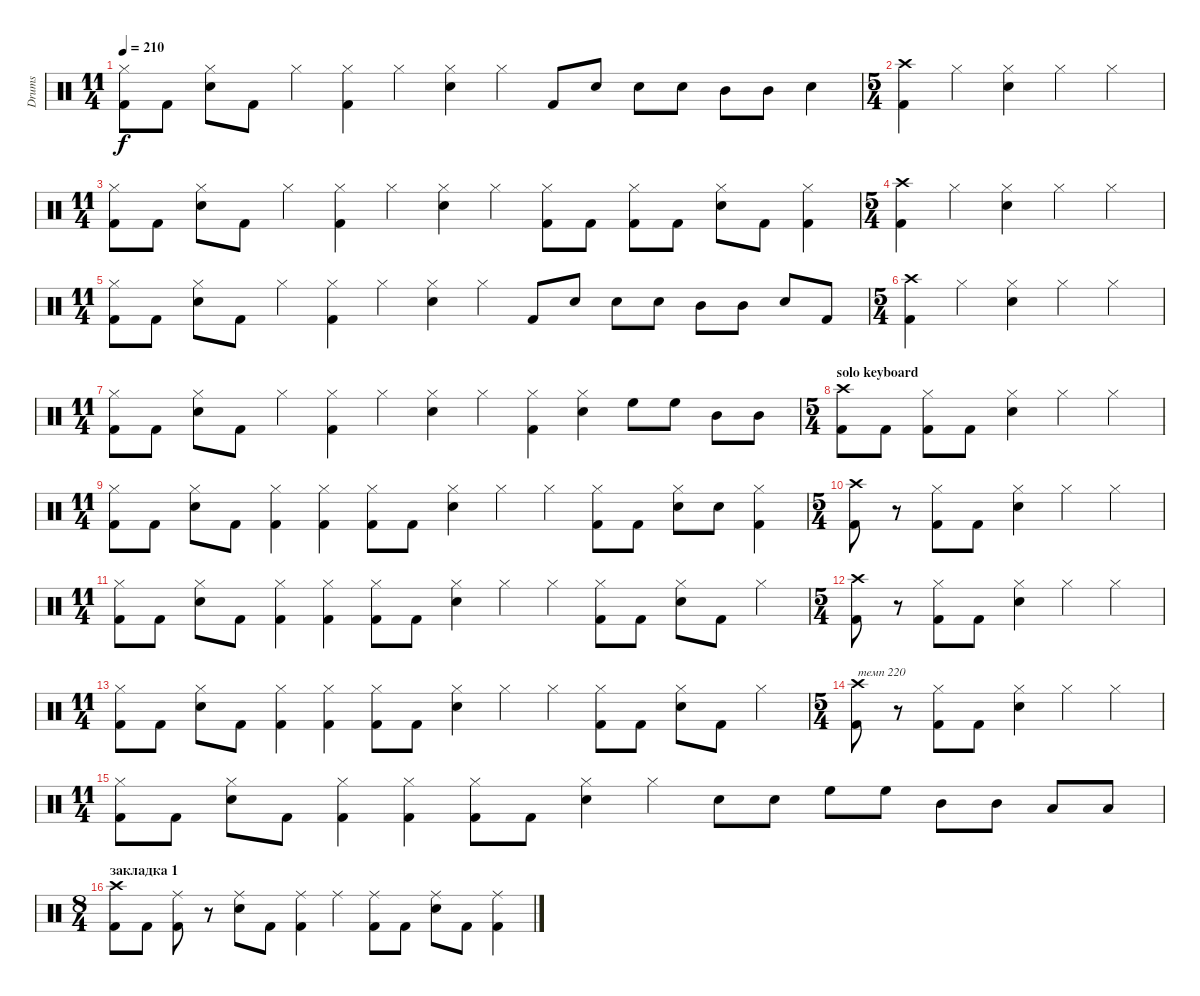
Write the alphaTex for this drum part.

\track ("Drums" "Drums") {instrument percussion}
\staff {score}
\articulation defaults
\ts (11 4)
\tempo 210
\clef neutral
\ks c
("Hi-Hat (closed)" "Kick (hit) 2").8{dy f} "Kick (hit) 2".8 ("Hi-Hat (closed)" "Snare (hit) 2").8 "Kick (hit) 2".8 "Hi-Hat (closed)".4 ("Hi-Hat (closed)" "Kick (hit) 2").4 "Hi-Hat (closed)".4 ("Hi-Hat (closed)" "Snare (hit) 2").4 "Hi-Hat (closed)".4 "Kick (hit) 2".8 "Snare (hit) 2".8 "Snare (hit) 2".8 "Snare (hit) 2".8 "Mid Tom (hit)".8 "Mid Tom (hit)".8 "Snare (hit) 2".4 |
\ts (5 4)
("Crash high (hit)" "Kick (hit) 2").4 "Hi-Hat (closed)".4 ("Hi-Hat (closed)" "Snare (hit) 2").4 "Hi-Hat (closed)".4 "Hi-Hat (closed)".4 |
\ts (11 4)
("Hi-Hat (closed)" "Kick (hit) 2").8 "Kick (hit) 2".8 ("Hi-Hat (closed)" "Snare (hit) 2").8 "Kick (hit) 2".8 "Hi-Hat (closed)".4 ("Hi-Hat (closed)" "Kick (hit) 2").4 "Hi-Hat (closed)".4 ("Hi-Hat (closed)" "Snare (hit) 2").4 "Hi-Hat (closed)".4 ("Hi-Hat (closed)" "Kick (hit) 2").8 "Kick (hit) 2".8 ("Hi-Hat (closed)" "Kick (hit) 2").8 "Kick (hit) 2".8 ("Hi-Hat (closed)" "Snare (hit) 2").8 "Kick (hit) 2".8 ("Hi-Hat (closed)" "Kick (hit) 2").4 |
\ts (5 4)
("Crash high (hit)" "Kick (hit) 2").4 "Hi-Hat (closed)".4 ("Hi-Hat (closed)" "Snare (hit) 2").4 "Hi-Hat (closed)".4 "Hi-Hat (closed)".4 |
\ts (11 4)
("Hi-Hat (closed)" "Kick (hit) 2").8 "Kick (hit) 2".8 ("Hi-Hat (closed)" "Snare (hit) 2").8 "Kick (hit) 2".8 "Hi-Hat (closed)".4 ("Hi-Hat (closed)" "Kick (hit) 2").4 "Hi-Hat (closed)".4 ("Hi-Hat (closed)" "Snare (hit) 2").4 "Hi-Hat (closed)".4 "Kick (hit) 2".8 "Snare (hit) 2".8 "Snare (hit) 2".8 "Snare (hit) 2".8 "Mid Tom (hit)".8 "Mid Tom (hit)".8 "Snare (hit) 2".8 "Kick (hit) 2".8 |
\ts (5 4)
("Crash high (hit)" "Kick (hit) 2").4 "Hi-Hat (closed)".4 ("Hi-Hat (closed)" "Snare (hit) 2").4 "Hi-Hat (closed)".4 "Hi-Hat (closed)".4 |
\ts (11 4)
("Hi-Hat (closed)" "Kick (hit) 2").8 "Kick (hit) 2".8 ("Hi-Hat (closed)" "Snare (hit) 2").8 "Kick (hit) 2".8 "Hi-Hat (closed)".4 ("Hi-Hat (closed)" "Kick (hit) 2").4 "Hi-Hat (closed)".4 ("Hi-Hat (closed)" "Snare (hit) 2").4 "Hi-Hat (closed)".4 ("Hi-Hat (closed)" "Kick (hit) 2").4 ("Hi-Hat (closed)" "Snare (hit) 2").4 "High Floor Tom (hit)".8 "High Floor Tom (hit)".8 "Mid Tom (hit)".8 "Mid Tom (hit)".8 |
\ts (5 4)
\section ("" "solo keyboard")
("Crash high (hit)" "Kick (hit) 2").8 "Kick (hit) 2".8 ("Hi-Hat (closed)" "Kick (hit) 2").8 "Kick (hit) 2".8 ("Hi-Hat (closed)" "Snare (hit) 2").4 "Hi-Hat (closed)".4 "Hi-Hat (closed)".4 |
\ts (11 4)
("Hi-Hat (closed)" "Kick (hit) 2").8 "Kick (hit) 2".8 ("Hi-Hat (closed)" "Snare (hit) 2").8 "Kick (hit) 2".8 ("Hi-Hat (closed)" "Kick (hit) 2").4 ("Hi-Hat (closed)" "Kick (hit) 2").4 ("Hi-Hat (closed)" "Kick (hit) 2").8 "Kick (hit) 2".8 ("Hi-Hat (closed)" "Snare (hit) 2").4 "Hi-Hat (closed)".4 "Hi-Hat (closed)".4 ("Hi-Hat (closed)" "Kick (hit) 2").8 "Kick (hit) 2".8 ("Hi-Hat (closed)" "Snare (hit) 2").8 "Snare (hit) 2".8 ("Hi-Hat (closed)" "Kick (hit) 2").4 |
\ts (5 4)
("Crash high (hit)" "Kick (hit) 2").8 r.8 ("Hi-Hat (closed)" "Kick (hit) 2").8 "Kick (hit) 2".8 ("Hi-Hat (closed)" "Snare (hit) 2").4 "Hi-Hat (closed)".4 "Hi-Hat (closed)".4 |
\ts (11 4)
("Hi-Hat (closed)" "Kick (hit) 2").8 "Kick (hit) 2".8 ("Hi-Hat (closed)" "Snare (hit) 2").8 "Kick (hit) 2".8 ("Hi-Hat (closed)" "Kick (hit) 2").4 ("Hi-Hat (closed)" "Kick (hit) 2").4 ("Hi-Hat (closed)" "Kick (hit) 2").8 "Kick (hit) 2".8 ("Hi-Hat (closed)" "Snare (hit) 2").4 "Hi-Hat (closed)".4 "Hi-Hat (closed)".4 ("Hi-Hat (closed)" "Kick (hit) 2").8 "Kick (hit) 2".8 ("Hi-Hat (closed)" "Snare (hit) 2").8 "Kick (hit) 2".8 "Hi-Hat (closed)".4 |
\ts (5 4)
("Crash high (hit)" "Kick (hit) 2").8 r.8 ("Hi-Hat (closed)" "Kick (hit) 2").8 "Kick (hit) 2".8 ("Hi-Hat (closed)" "Snare (hit) 2").4 "Hi-Hat (closed)".4 "Hi-Hat (closed)".4 |
\ts (11 4)
("Hi-Hat (closed)" "Kick (hit) 2").8 "Kick (hit) 2".8 ("Hi-Hat (closed)" "Snare (hit) 2").8 "Kick (hit) 2".8 ("Hi-Hat (closed)" "Kick (hit) 2").4 ("Hi-Hat (closed)" "Kick (hit) 2").4 ("Hi-Hat (closed)" "Kick (hit) 2").8 "Kick (hit) 2".8 ("Hi-Hat (closed)" "Snare (hit) 2").4 "Hi-Hat (closed)".4 "Hi-Hat (closed)".4 ("Hi-Hat (closed)" "Kick (hit) 2").8 "Kick (hit) 2".8 ("Hi-Hat (closed)" "Snare (hit) 2").8 "Kick (hit) 2".8 "Hi-Hat (closed)".4 |
\ts (5 4)
("Crash high (hit)" "Kick (hit) 2").8{txt "темп 220"} r.8 ("Hi-Hat (closed)" "Kick (hit) 2").8 "Kick (hit) 2".8 ("Hi-Hat (closed)" "Snare (hit) 2").4 "Hi-Hat (closed)".4 "Hi-Hat (closed)".4 |
\ts (11 4)
("Hi-Hat (closed)" "Kick (hit) 2").8 "Kick (hit) 2".8 ("Hi-Hat (closed)" "Snare (hit) 2").8 "Kick (hit) 2".8 ("Hi-Hat (closed)" "Kick (hit) 2").4 ("Hi-Hat (closed)" "Kick (hit) 2").4 ("Hi-Hat (closed)" "Kick (hit) 2").8 "Kick (hit) 2".8 ("Hi-Hat (closed)" "Snare (hit) 2").4 "Hi-Hat (closed)".4 "Snare (hit) 2".8 "Snare (hit) 2".8 "High Floor Tom (hit)".8 "High Floor Tom (hit)".8 "Mid Tom (hit)".8 "Mid Tom (hit)".8 "Low Tom (hit)".8 "Low Tom (hit)".8 |
\ts (8 4)
\section ("" "закладка 1")
("Crash high (hit)" "Kick (hit) 2").8 "Kick (hit) 2".8 ("Ride (middle)" "Kick (hit) 2").8 r.8 ("Ride (middle)" "Snare (hit) 2").8 "Kick (hit) 2".8 ("Ride (middle)" "Kick (hit) 2").4 "Ride (middle)".4 ("Ride (middle)" "Kick (hit) 2").8 "Kick (hit) 2".8 ("Ride (middle)" "Snare (hit) 2").8 "Kick (hit) 2".8 ("Ride (middle)" "Kick (hit) 2").4
